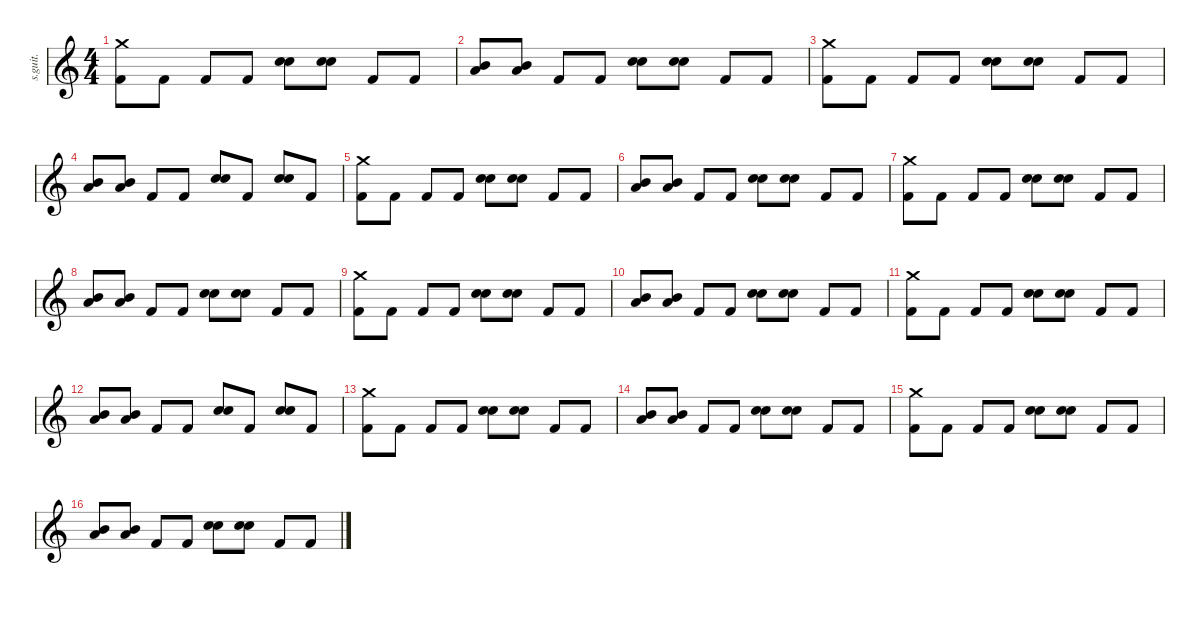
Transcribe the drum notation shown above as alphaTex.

\defaultSystemsLayout 4
\hideDynamics
\bracketExtendMode nobrackets
\track ("Taylor Hawkins" "s.guit.") {instrument percussion}
\staff {score}
\articulation defaults
\ts (4 4)
\tempo (154 hide)
\clef g2
\ks c
("Crash medium (hit)" "Kick (hit) 2").8{lyrics (0 "") lyrics (1 "") lyrics (2 "") lyrics (3 "") lyrics (4 "") dy f} "Kick (hit) 2".8{lyrics (0 "") lyrics (1 "") lyrics (2 "") lyrics (3 "") lyrics (4 "")} "Kick (hit) 2".8{lyrics (0 "") lyrics (1 "") lyrics (2 "") lyrics (3 "") lyrics (4 "")} "Kick (hit) 2".8{lyrics (0 "") lyrics (1 "") lyrics (2 "") lyrics (3 "") lyrics (4 "")} ("Snare (hit) 2" "Electric Snare (hit)").8{lyrics (0 "") lyrics (1 "") lyrics (2 "") lyrics (3 "") lyrics (4 "")} ("Snare (hit) 2" "Electric Snare (hit)").8{lyrics (0 "") lyrics (1 "") lyrics (2 "") lyrics (3 "") lyrics (4 "")} "Kick (hit) 2".8{lyrics (0 "") lyrics (1 "") lyrics (2 "") lyrics (3 "") lyrics (4 "")} "Kick (hit) 2".8{lyrics (0 "") lyrics (1 "") lyrics (2 "") lyrics (3 "") lyrics (4 "")} |
("Low Floor Tom (hit)" "Mid Tom (hit)").8{lyrics (0 "") lyrics (1 "") lyrics (2 "") lyrics (3 "") lyrics (4 "")} ("Low Floor Tom (hit)" "Mid Tom (hit)").8{lyrics (0 "") lyrics (1 "") lyrics (2 "") lyrics (3 "") lyrics (4 "")} "Kick (hit) 2".8{lyrics (0 "") lyrics (1 "") lyrics (2 "") lyrics (3 "") lyrics (4 "")} "Kick (hit) 2".8{lyrics (0 "") lyrics (1 "") lyrics (2 "") lyrics (3 "") lyrics (4 "")} ("Snare (hit) 2" "Electric Snare (hit)").8{lyrics (0 "") lyrics (1 "") lyrics (2 "") lyrics (3 "") lyrics (4 "")} ("Snare (hit) 2" "Electric Snare (hit)").8{lyrics (0 "") lyrics (1 "") lyrics (2 "") lyrics (3 "") lyrics (4 "")} "Kick (hit) 2".8{lyrics (0 "") lyrics (1 "") lyrics (2 "") lyrics (3 "") lyrics (4 "")} "Kick (hit) 2".8{lyrics (0 "") lyrics (1 "") lyrics (2 "") lyrics (3 "") lyrics (4 "")} |
("Crash medium (hit)" "Kick (hit) 2").8{lyrics (0 "") lyrics (1 "") lyrics (2 "") lyrics (3 "") lyrics (4 "")} "Kick (hit) 2".8{lyrics (0 "") lyrics (1 "") lyrics (2 "") lyrics (3 "") lyrics (4 "")} "Kick (hit) 2".8{lyrics (0 "") lyrics (1 "") lyrics (2 "") lyrics (3 "") lyrics (4 "")} "Kick (hit) 2".8{lyrics (0 "") lyrics (1 "") lyrics (2 "") lyrics (3 "") lyrics (4 "")} ("Snare (hit) 2" "Electric Snare (hit)").8{lyrics (0 "") lyrics (1 "") lyrics (2 "") lyrics (3 "") lyrics (4 "")} ("Snare (hit) 2" "Electric Snare (hit)").8{lyrics (0 "") lyrics (1 "") lyrics (2 "") lyrics (3 "") lyrics (4 "")} "Kick (hit) 2".8{lyrics (0 "") lyrics (1 "") lyrics (2 "") lyrics (3 "") lyrics (4 "")} "Kick (hit) 2".8{lyrics (0 "") lyrics (1 "") lyrics (2 "") lyrics (3 "") lyrics (4 "")} |
("Mid Tom (hit)" "Low Tom (hit)").8{lyrics (0 "") lyrics (1 "") lyrics (2 "") lyrics (3 "") lyrics (4 "")} ("Mid Tom (hit)" "Low Tom (hit)").8{lyrics (0 "") lyrics (1 "") lyrics (2 "") lyrics (3 "") lyrics (4 "")} "Kick (hit) 2".8{lyrics (0 "") lyrics (1 "") lyrics (2 "") lyrics (3 "") lyrics (4 "")} "Kick (hit) 2".8{lyrics (0 "") lyrics (1 "") lyrics (2 "") lyrics (3 "") lyrics (4 "")} ("Snare (hit) 2" "Electric Snare (hit)").8{lyrics (0 "") lyrics (1 "") lyrics (2 "") lyrics (3 "") lyrics (4 "")} "Kick (hit) 2".8{lyrics (0 "") lyrics (1 "") lyrics (2 "") lyrics (3 "") lyrics (4 "")} ("Snare (hit) 2" "Electric Snare (hit)").8{lyrics (0 "") lyrics (1 "") lyrics (2 "") lyrics (3 "") lyrics (4 "")} "Kick (hit) 2".8{lyrics (0 "") lyrics (1 "") lyrics (2 "") lyrics (3 "") lyrics (4 "")} |
("Crash medium (hit)" "Kick (hit) 2").8{lyrics (0 "") lyrics (1 "") lyrics (2 "") lyrics (3 "") lyrics (4 "")} "Kick (hit) 2".8{lyrics (0 "") lyrics (1 "") lyrics (2 "") lyrics (3 "") lyrics (4 "")} "Kick (hit) 2".8{lyrics (0 "") lyrics (1 "") lyrics (2 "") lyrics (3 "") lyrics (4 "")} "Kick (hit) 2".8{lyrics (0 "") lyrics (1 "") lyrics (2 "") lyrics (3 "") lyrics (4 "")} ("Snare (hit) 2" "Electric Snare (hit)").8{lyrics (0 "") lyrics (1 "") lyrics (2 "") lyrics (3 "") lyrics (4 "")} ("Snare (hit) 2" "Electric Snare (hit)").8{lyrics (0 "") lyrics (1 "") lyrics (2 "") lyrics (3 "") lyrics (4 "")} "Kick (hit) 2".8{lyrics (0 "") lyrics (1 "") lyrics (2 "") lyrics (3 "") lyrics (4 "")} "Kick (hit) 2".8{lyrics (0 "") lyrics (1 "") lyrics (2 "") lyrics (3 "") lyrics (4 "")} |
("Low Floor Tom (hit)" "Mid Tom (hit)").8{lyrics (0 "") lyrics (1 "") lyrics (2 "") lyrics (3 "") lyrics (4 "")} ("Low Floor Tom (hit)" "Mid Tom (hit)").8{lyrics (0 "") lyrics (1 "") lyrics (2 "") lyrics (3 "") lyrics (4 "")} "Kick (hit) 2".8{lyrics (0 "") lyrics (1 "") lyrics (2 "") lyrics (3 "") lyrics (4 "")} "Kick (hit) 2".8{lyrics (0 "") lyrics (1 "") lyrics (2 "") lyrics (3 "") lyrics (4 "")} ("Snare (hit) 2" "Electric Snare (hit)").8{lyrics (0 "") lyrics (1 "") lyrics (2 "") lyrics (3 "") lyrics (4 "")} ("Snare (hit) 2" "Electric Snare (hit)").8{lyrics (0 "") lyrics (1 "") lyrics (2 "") lyrics (3 "") lyrics (4 "")} "Kick (hit) 2".8{lyrics (0 "") lyrics (1 "") lyrics (2 "") lyrics (3 "") lyrics (4 "")} "Kick (hit) 2".8{lyrics (0 "") lyrics (1 "") lyrics (2 "") lyrics (3 "") lyrics (4 "")} |
("Crash medium (hit)" "Kick (hit) 2").8{lyrics (0 "") lyrics (1 "") lyrics (2 "") lyrics (3 "") lyrics (4 "")} "Kick (hit) 2".8{lyrics (0 "") lyrics (1 "") lyrics (2 "") lyrics (3 "") lyrics (4 "")} "Kick (hit) 2".8{lyrics (0 "") lyrics (1 "") lyrics (2 "") lyrics (3 "") lyrics (4 "")} "Kick (hit) 2".8{lyrics (0 "") lyrics (1 "") lyrics (2 "") lyrics (3 "") lyrics (4 "")} ("Snare (hit) 2" "Electric Snare (hit)").8{lyrics (0 "") lyrics (1 "") lyrics (2 "") lyrics (3 "") lyrics (4 "")} ("Snare (hit) 2" "Electric Snare (hit)").8{lyrics (0 "") lyrics (1 "") lyrics (2 "") lyrics (3 "") lyrics (4 "")} "Kick (hit) 2".8{lyrics (0 "") lyrics (1 "") lyrics (2 "") lyrics (3 "") lyrics (4 "")} "Kick (hit) 2".8{lyrics (0 "") lyrics (1 "") lyrics (2 "") lyrics (3 "") lyrics (4 "")} |
("Low Floor Tom (hit)" "Mid Tom (hit)").8{lyrics (0 "") lyrics (1 "") lyrics (2 "") lyrics (3 "") lyrics (4 "")} ("Low Floor Tom (hit)" "Mid Tom (hit)").8{lyrics (0 "") lyrics (1 "") lyrics (2 "") lyrics (3 "") lyrics (4 "")} "Kick (hit) 2".8{lyrics (0 "") lyrics (1 "") lyrics (2 "") lyrics (3 "") lyrics (4 "")} "Kick (hit) 2".8{lyrics (0 "") lyrics (1 "") lyrics (2 "") lyrics (3 "") lyrics (4 "")} ("Snare (hit) 2" "Electric Snare (hit)").8{lyrics (0 "") lyrics (1 "") lyrics (2 "") lyrics (3 "") lyrics (4 "")} ("Snare (hit) 2" "Electric Snare (hit)").8{lyrics (0 "") lyrics (1 "") lyrics (2 "") lyrics (3 "") lyrics (4 "")} "Kick (hit) 2".8{lyrics (0 "") lyrics (1 "") lyrics (2 "") lyrics (3 "") lyrics (4 "")} "Kick (hit) 2".8{lyrics (0 "") lyrics (1 "") lyrics (2 "") lyrics (3 "") lyrics (4 "")} |
("Crash medium (hit)" "Kick (hit) 2").8{lyrics (0 "") lyrics (1 "") lyrics (2 "") lyrics (3 "") lyrics (4 "")} "Kick (hit) 2".8{lyrics (0 "") lyrics (1 "") lyrics (2 "") lyrics (3 "") lyrics (4 "")} "Kick (hit) 2".8{lyrics (0 "") lyrics (1 "") lyrics (2 "") lyrics (3 "") lyrics (4 "")} "Kick (hit) 2".8{lyrics (0 "") lyrics (1 "") lyrics (2 "") lyrics (3 "") lyrics (4 "")} ("Snare (hit) 2" "Electric Snare (hit)").8{lyrics (0 "") lyrics (1 "") lyrics (2 "") lyrics (3 "") lyrics (4 "")} ("Snare (hit) 2" "Electric Snare (hit)").8{lyrics (0 "") lyrics (1 "") lyrics (2 "") lyrics (3 "") lyrics (4 "")} "Kick (hit) 2".8{lyrics (0 "") lyrics (1 "") lyrics (2 "") lyrics (3 "") lyrics (4 "")} "Kick (hit) 2".8{lyrics (0 "") lyrics (1 "") lyrics (2 "") lyrics (3 "") lyrics (4 "")} |
("Low Floor Tom (hit)" "Mid Tom (hit)").8{lyrics (0 "") lyrics (1 "") lyrics (2 "") lyrics (3 "") lyrics (4 "")} ("Low Floor Tom (hit)" "Mid Tom (hit)").8{lyrics (0 "") lyrics (1 "") lyrics (2 "") lyrics (3 "") lyrics (4 "")} "Kick (hit) 2".8{lyrics (0 "") lyrics (1 "") lyrics (2 "") lyrics (3 "") lyrics (4 "")} "Kick (hit) 2".8{lyrics (0 "") lyrics (1 "") lyrics (2 "") lyrics (3 "") lyrics (4 "")} ("Snare (hit) 2" "Electric Snare (hit)").8{lyrics (0 "") lyrics (1 "") lyrics (2 "") lyrics (3 "") lyrics (4 "")} ("Snare (hit) 2" "Electric Snare (hit)").8{lyrics (0 "") lyrics (1 "") lyrics (2 "") lyrics (3 "") lyrics (4 "")} "Kick (hit) 2".8{lyrics (0 "") lyrics (1 "") lyrics (2 "") lyrics (3 "") lyrics (4 "")} "Kick (hit) 2".8{lyrics (0 "") lyrics (1 "") lyrics (2 "") lyrics (3 "") lyrics (4 "")} |
("Crash medium (hit)" "Kick (hit) 2").8{lyrics (0 "") lyrics (1 "") lyrics (2 "") lyrics (3 "") lyrics (4 "")} "Kick (hit) 2".8{lyrics (0 "") lyrics (1 "") lyrics (2 "") lyrics (3 "") lyrics (4 "")} "Kick (hit) 2".8{lyrics (0 "") lyrics (1 "") lyrics (2 "") lyrics (3 "") lyrics (4 "")} "Kick (hit) 2".8{lyrics (0 "") lyrics (1 "") lyrics (2 "") lyrics (3 "") lyrics (4 "")} ("Snare (hit) 2" "Electric Snare (hit)").8{lyrics (0 "") lyrics (1 "") lyrics (2 "") lyrics (3 "") lyrics (4 "")} ("Snare (hit) 2" "Electric Snare (hit)").8{lyrics (0 "") lyrics (1 "") lyrics (2 "") lyrics (3 "") lyrics (4 "")} "Kick (hit) 2".8{lyrics (0 "") lyrics (1 "") lyrics (2 "") lyrics (3 "") lyrics (4 "")} "Kick (hit) 2".8{lyrics (0 "") lyrics (1 "") lyrics (2 "") lyrics (3 "") lyrics (4 "")} |
("Mid Tom (hit)" "Low Tom (hit)").8{lyrics (0 "") lyrics (1 "") lyrics (2 "") lyrics (3 "") lyrics (4 "")} ("Mid Tom (hit)" "Low Tom (hit)").8{lyrics (0 "") lyrics (1 "") lyrics (2 "") lyrics (3 "") lyrics (4 "")} "Kick (hit) 2".8{lyrics (0 "") lyrics (1 "") lyrics (2 "") lyrics (3 "") lyrics (4 "")} "Kick (hit) 2".8{lyrics (0 "") lyrics (1 "") lyrics (2 "") lyrics (3 "") lyrics (4 "")} ("Snare (hit) 2" "Electric Snare (hit)").8{lyrics (0 "") lyrics (1 "") lyrics (2 "") lyrics (3 "") lyrics (4 "")} "Kick (hit) 2".8{lyrics (0 "") lyrics (1 "") lyrics (2 "") lyrics (3 "") lyrics (4 "")} ("Snare (hit) 2" "Electric Snare (hit)").8{lyrics (0 "") lyrics (1 "") lyrics (2 "") lyrics (3 "") lyrics (4 "")} "Kick (hit) 2".8{lyrics (0 "") lyrics (1 "") lyrics (2 "") lyrics (3 "") lyrics (4 "")} |
("Crash medium (hit)" "Kick (hit) 2").8{lyrics (0 "") lyrics (1 "") lyrics (2 "") lyrics (3 "") lyrics (4 "")} "Kick (hit) 2".8{lyrics (0 "") lyrics (1 "") lyrics (2 "") lyrics (3 "") lyrics (4 "")} "Kick (hit) 2".8{lyrics (0 "") lyrics (1 "") lyrics (2 "") lyrics (3 "") lyrics (4 "")} "Kick (hit) 2".8{lyrics (0 "") lyrics (1 "") lyrics (2 "") lyrics (3 "") lyrics (4 "")} ("Snare (hit) 2" "Electric Snare (hit)").8{lyrics (0 "") lyrics (1 "") lyrics (2 "") lyrics (3 "") lyrics (4 "")} ("Snare (hit) 2" "Electric Snare (hit)").8{lyrics (0 "") lyrics (1 "") lyrics (2 "") lyrics (3 "") lyrics (4 "")} "Kick (hit) 2".8{lyrics (0 "") lyrics (1 "") lyrics (2 "") lyrics (3 "") lyrics (4 "")} "Kick (hit) 2".8{lyrics (0 "") lyrics (1 "") lyrics (2 "") lyrics (3 "") lyrics (4 "")} |
("Low Floor Tom (hit)" "Mid Tom (hit)").8{lyrics (0 "") lyrics (1 "") lyrics (2 "") lyrics (3 "") lyrics (4 "")} ("Low Floor Tom (hit)" "Mid Tom (hit)").8{lyrics (0 "") lyrics (1 "") lyrics (2 "") lyrics (3 "") lyrics (4 "")} "Kick (hit) 2".8{lyrics (0 "") lyrics (1 "") lyrics (2 "") lyrics (3 "") lyrics (4 "")} "Kick (hit) 2".8{lyrics (0 "") lyrics (1 "") lyrics (2 "") lyrics (3 "") lyrics (4 "")} ("Snare (hit) 2" "Electric Snare (hit)").8{lyrics (0 "") lyrics (1 "") lyrics (2 "") lyrics (3 "") lyrics (4 "")} ("Snare (hit) 2" "Electric Snare (hit)").8{lyrics (0 "") lyrics (1 "") lyrics (2 "") lyrics (3 "") lyrics (4 "")} "Kick (hit) 2".8{lyrics (0 "") lyrics (1 "") lyrics (2 "") lyrics (3 "") lyrics (4 "")} "Kick (hit) 2".8{lyrics (0 "") lyrics (1 "") lyrics (2 "") lyrics (3 "") lyrics (4 "")} |
("Crash medium (hit)" "Kick (hit) 2").8{lyrics (0 "") lyrics (1 "") lyrics (2 "") lyrics (3 "") lyrics (4 "")} "Kick (hit) 2".8{lyrics (0 "") lyrics (1 "") lyrics (2 "") lyrics (3 "") lyrics (4 "")} "Kick (hit) 2".8{lyrics (0 "") lyrics (1 "") lyrics (2 "") lyrics (3 "") lyrics (4 "")} "Kick (hit) 2".8{lyrics (0 "") lyrics (1 "") lyrics (2 "") lyrics (3 "") lyrics (4 "")} ("Snare (hit) 2" "Electric Snare (hit)").8{lyrics (0 "") lyrics (1 "") lyrics (2 "") lyrics (3 "") lyrics (4 "")} ("Snare (hit) 2" "Electric Snare (hit)").8{lyrics (0 "") lyrics (1 "") lyrics (2 "") lyrics (3 "") lyrics (4 "")} "Kick (hit) 2".8{lyrics (0 "") lyrics (1 "") lyrics (2 "") lyrics (3 "") lyrics (4 "")} "Kick (hit) 2".8{lyrics (0 "") lyrics (1 "") lyrics (2 "") lyrics (3 "") lyrics (4 "")} |
("Low Floor Tom (hit)" "Mid Tom (hit)").8{lyrics (0 "") lyrics (1 "") lyrics (2 "") lyrics (3 "") lyrics (4 "")} ("Low Floor Tom (hit)" "Mid Tom (hit)").8{lyrics (0 "") lyrics (1 "") lyrics (2 "") lyrics (3 "") lyrics (4 "")} "Kick (hit) 2".8{lyrics (0 "") lyrics (1 "") lyrics (2 "") lyrics (3 "") lyrics (4 "")} "Kick (hit) 2".8{lyrics (0 "") lyrics (1 "") lyrics (2 "") lyrics (3 "") lyrics (4 "")} ("Snare (hit) 2" "Electric Snare (hit)").8{lyrics (0 "") lyrics (1 "") lyrics (2 "") lyrics (3 "") lyrics (4 "")} ("Snare (hit) 2" "Electric Snare (hit)").8{lyrics (0 "") lyrics (1 "") lyrics (2 "") lyrics (3 "") lyrics (4 "")} "Kick (hit) 2".8{lyrics (0 "") lyrics (1 "") lyrics (2 "") lyrics (3 "") lyrics (4 "")} "Kick (hit) 2".8{lyrics (0 "") lyrics (1 "") lyrics (2 "") lyrics (3 "") lyrics (4 "")}
